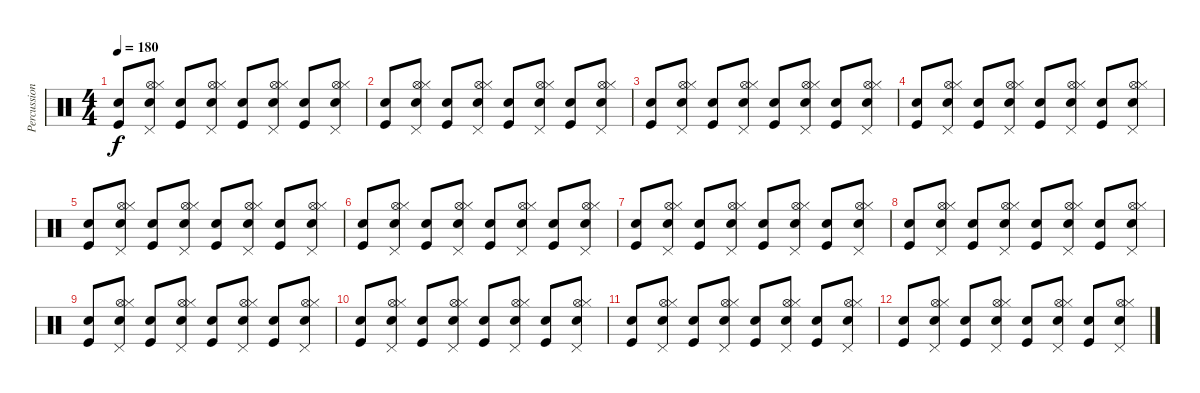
\track ("Percussions" "Percussion") {instrument percussion}
\staff {score}
\articulation defaults
\ts (4 4)
\tempo 180
\clef neutral
\ks c
("Snare (hit) 2" "Kick (hit)").8{dy f} ("Electric Snare (hit)" "Hi-Hat (open)" "Hi-Hat (closed)" "Pedal Hi-Hat (hit)").8 ("Snare (hit) 2" "Kick (hit)").8 ("Electric Snare (hit)" "Hi-Hat (open)" "Hi-Hat (closed)" "Pedal Hi-Hat (hit)").8 ("Snare (hit) 2" "Kick (hit)").8 ("Electric Snare (hit)" "Hi-Hat (open)" "Hi-Hat (closed)" "Pedal Hi-Hat (hit)").8 ("Snare (hit) 2" "Kick (hit)").8 ("Electric Snare (hit)" "Hi-Hat (open)" "Hi-Hat (closed)" "Pedal Hi-Hat (hit)").8 |
("Snare (hit) 2" "Kick (hit)").8 ("Electric Snare (hit)" "Hi-Hat (open)" "Hi-Hat (closed)" "Pedal Hi-Hat (hit)").8 ("Snare (hit) 2" "Kick (hit)").8 ("Electric Snare (hit)" "Hi-Hat (open)" "Hi-Hat (closed)" "Pedal Hi-Hat (hit)").8 ("Snare (hit) 2" "Kick (hit)").8 ("Electric Snare (hit)" "Hi-Hat (open)" "Hi-Hat (closed)" "Pedal Hi-Hat (hit)").8 ("Snare (hit) 2" "Kick (hit)").8 ("Electric Snare (hit)" "Hi-Hat (open)" "Hi-Hat (closed)" "Pedal Hi-Hat (hit)").8 |
("Snare (hit) 2" "Kick (hit)").8 ("Electric Snare (hit)" "Hi-Hat (open)" "Hi-Hat (closed)" "Pedal Hi-Hat (hit)").8 ("Snare (hit) 2" "Kick (hit)").8 ("Electric Snare (hit)" "Hi-Hat (open)" "Hi-Hat (closed)" "Pedal Hi-Hat (hit)").8 ("Snare (hit) 2" "Kick (hit)").8 ("Electric Snare (hit)" "Hi-Hat (open)" "Hi-Hat (closed)" "Pedal Hi-Hat (hit)").8 ("Snare (hit) 2" "Kick (hit)").8 ("Electric Snare (hit)" "Hi-Hat (open)" "Hi-Hat (closed)" "Pedal Hi-Hat (hit)").8 |
("Snare (hit) 2" "Kick (hit)").8 ("Electric Snare (hit)" "Hi-Hat (open)" "Hi-Hat (closed)" "Pedal Hi-Hat (hit)").8 ("Snare (hit) 2" "Kick (hit)").8 ("Electric Snare (hit)" "Hi-Hat (open)" "Hi-Hat (closed)" "Pedal Hi-Hat (hit)").8 ("Snare (hit) 2" "Kick (hit)").8 ("Electric Snare (hit)" "Hi-Hat (open)" "Hi-Hat (closed)" "Pedal Hi-Hat (hit)").8 ("Snare (hit) 2" "Kick (hit)").8 ("Electric Snare (hit)" "Hi-Hat (open)" "Hi-Hat (closed)" "Pedal Hi-Hat (hit)").8 |
("Snare (hit) 2" "Kick (hit)").8 ("Electric Snare (hit)" "Hi-Hat (open)" "Hi-Hat (closed)" "Pedal Hi-Hat (hit)").8 ("Snare (hit) 2" "Kick (hit)").8 ("Electric Snare (hit)" "Hi-Hat (open)" "Hi-Hat (closed)" "Pedal Hi-Hat (hit)").8 ("Snare (hit) 2" "Kick (hit)").8 ("Electric Snare (hit)" "Hi-Hat (open)" "Hi-Hat (closed)" "Pedal Hi-Hat (hit)").8 ("Snare (hit) 2" "Kick (hit)").8 ("Electric Snare (hit)" "Hi-Hat (open)" "Hi-Hat (closed)" "Pedal Hi-Hat (hit)").8 |
("Snare (hit) 2" "Kick (hit)").8 ("Electric Snare (hit)" "Hi-Hat (open)" "Hi-Hat (closed)" "Pedal Hi-Hat (hit)").8 ("Snare (hit) 2" "Kick (hit)").8 ("Electric Snare (hit)" "Hi-Hat (open)" "Hi-Hat (closed)" "Pedal Hi-Hat (hit)").8 ("Snare (hit) 2" "Kick (hit)").8 ("Electric Snare (hit)" "Hi-Hat (open)" "Hi-Hat (closed)" "Pedal Hi-Hat (hit)").8 ("Snare (hit) 2" "Kick (hit)").8 ("Electric Snare (hit)" "Hi-Hat (open)" "Hi-Hat (closed)" "Pedal Hi-Hat (hit)").8 |
("Snare (hit) 2" "Kick (hit)").8 ("Electric Snare (hit)" "Hi-Hat (open)" "Hi-Hat (closed)" "Pedal Hi-Hat (hit)").8 ("Snare (hit) 2" "Kick (hit)").8 ("Electric Snare (hit)" "Hi-Hat (open)" "Hi-Hat (closed)" "Pedal Hi-Hat (hit)").8 ("Snare (hit) 2" "Kick (hit)").8 ("Electric Snare (hit)" "Hi-Hat (open)" "Hi-Hat (closed)" "Pedal Hi-Hat (hit)").8 ("Snare (hit) 2" "Kick (hit)").8 ("Electric Snare (hit)" "Hi-Hat (open)" "Hi-Hat (closed)" "Pedal Hi-Hat (hit)").8 |
("Snare (hit) 2" "Kick (hit)").8 ("Electric Snare (hit)" "Hi-Hat (open)" "Hi-Hat (closed)" "Pedal Hi-Hat (hit)").8 ("Snare (hit) 2" "Kick (hit)").8 ("Electric Snare (hit)" "Hi-Hat (open)" "Hi-Hat (closed)" "Pedal Hi-Hat (hit)").8 ("Snare (hit) 2" "Kick (hit)").8 ("Electric Snare (hit)" "Hi-Hat (open)" "Hi-Hat (closed)" "Pedal Hi-Hat (hit)").8 ("Snare (hit) 2" "Kick (hit)").8 ("Electric Snare (hit)" "Hi-Hat (open)" "Hi-Hat (closed)" "Pedal Hi-Hat (hit)").8 |
("Snare (hit) 2" "Kick (hit)").8 ("Electric Snare (hit)" "Hi-Hat (open)" "Hi-Hat (closed)" "Pedal Hi-Hat (hit)").8 ("Snare (hit) 2" "Kick (hit)").8 ("Electric Snare (hit)" "Hi-Hat (open)" "Hi-Hat (closed)" "Pedal Hi-Hat (hit)").8 ("Snare (hit) 2" "Kick (hit)").8 ("Electric Snare (hit)" "Hi-Hat (open)" "Hi-Hat (closed)" "Pedal Hi-Hat (hit)").8 ("Snare (hit) 2" "Kick (hit)").8 ("Electric Snare (hit)" "Hi-Hat (open)" "Hi-Hat (closed)" "Pedal Hi-Hat (hit)").8 |
("Snare (hit) 2" "Kick (hit)").8 ("Electric Snare (hit)" "Hi-Hat (open)" "Hi-Hat (closed)" "Pedal Hi-Hat (hit)").8 ("Snare (hit) 2" "Kick (hit)").8 ("Electric Snare (hit)" "Hi-Hat (open)" "Hi-Hat (closed)" "Pedal Hi-Hat (hit)").8 ("Snare (hit) 2" "Kick (hit)").8 ("Electric Snare (hit)" "Hi-Hat (open)" "Hi-Hat (closed)" "Pedal Hi-Hat (hit)").8 ("Snare (hit) 2" "Kick (hit)").8 ("Electric Snare (hit)" "Hi-Hat (open)" "Hi-Hat (closed)" "Pedal Hi-Hat (hit)").8 |
("Snare (hit) 2" "Kick (hit)").8 ("Electric Snare (hit)" "Hi-Hat (open)" "Hi-Hat (closed)" "Pedal Hi-Hat (hit)").8 ("Snare (hit) 2" "Kick (hit)").8 ("Electric Snare (hit)" "Hi-Hat (open)" "Hi-Hat (closed)" "Pedal Hi-Hat (hit)").8 ("Snare (hit) 2" "Kick (hit)").8 ("Electric Snare (hit)" "Hi-Hat (open)" "Hi-Hat (closed)" "Pedal Hi-Hat (hit)").8 ("Snare (hit) 2" "Kick (hit)").8 ("Electric Snare (hit)" "Hi-Hat (open)" "Hi-Hat (closed)" "Pedal Hi-Hat (hit)").8 |
("Snare (hit) 2" "Kick (hit)").8 ("Electric Snare (hit)" "Hi-Hat (open)" "Hi-Hat (closed)" "Pedal Hi-Hat (hit)").8 ("Snare (hit) 2" "Kick (hit)").8 ("Electric Snare (hit)" "Hi-Hat (open)" "Hi-Hat (closed)" "Pedal Hi-Hat (hit)").8 ("Snare (hit) 2" "Kick (hit)").8 ("Electric Snare (hit)" "Hi-Hat (open)" "Hi-Hat (closed)" "Pedal Hi-Hat (hit)").8 ("Snare (hit) 2" "Kick (hit)").8 ("Electric Snare (hit)" "Hi-Hat (open)" "Hi-Hat (closed)" "Pedal Hi-Hat (hit)").8
